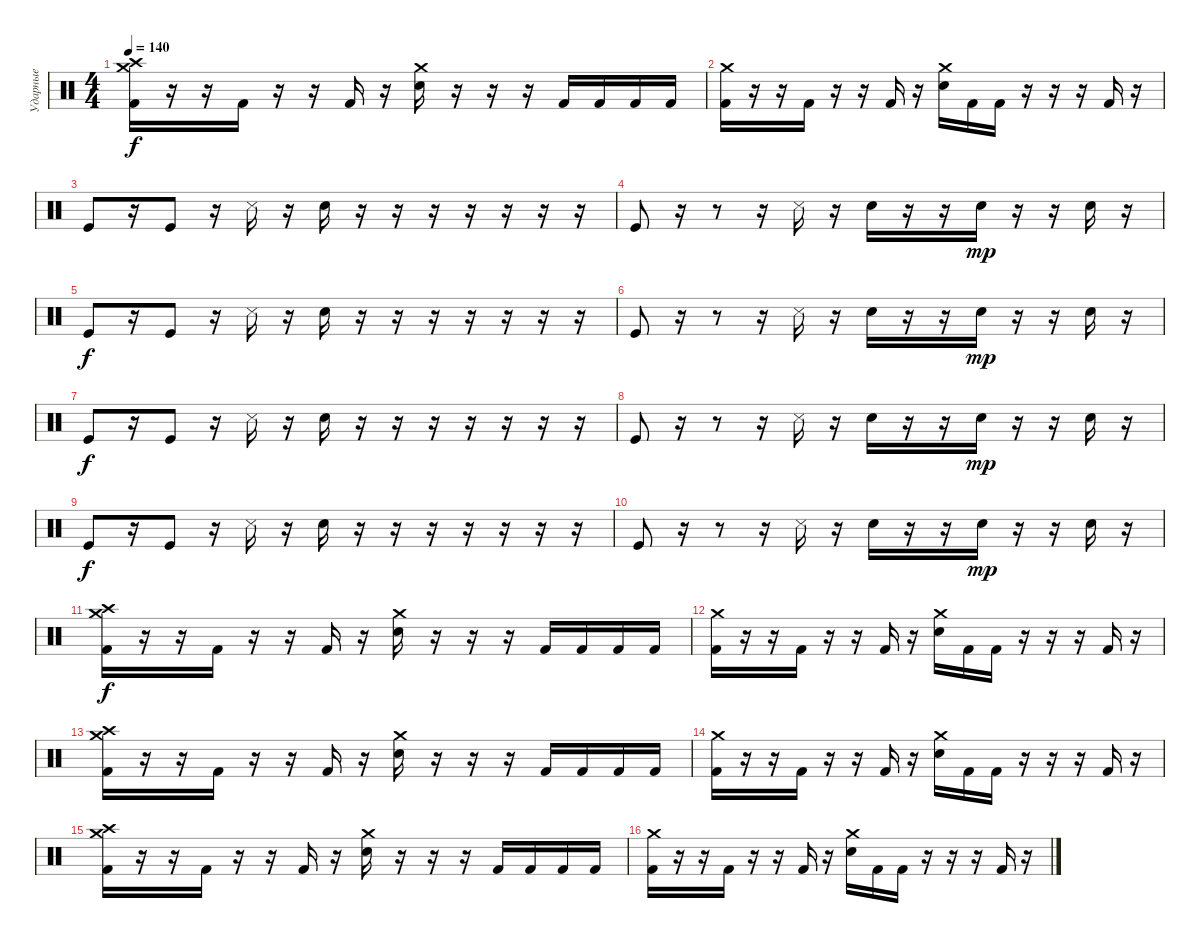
\track ("Ударные" "Ударные") {instrument percussion}
\staff {score}
\articulation defaults
\ts (4 4)
\tempo 140
\clef neutral
\ks c
("Crash medium (hit)" "Crash high (hit)" "Kick (hit) 2").16{dy f} r.16 r.16 "Kick (hit) 2".16 r.16 r.16 "Kick (hit) 2".16 r.16 ("Crash medium (hit)" "Snare (hit) 2").16 r.16 r.16 r.16 "Kick (hit) 2".16 "Kick (hit) 2".16 "Kick (hit) 2".16 "Kick (hit) 2".16 |
("Crash medium (hit)" "Kick (hit) 2").16 r.16 r.16 "Kick (hit) 2".16 r.16 r.16 "Kick (hit) 2".16 r.16 ("Crash medium (hit)" "Snare (hit) 2").16 "Kick (hit) 2".16 "Kick (hit) 2".16 r.16 r.16 r.16 "Kick (hit) 2".16 r.16 |
"Kick (hit)".8 r.16 "Kick (hit)".8 r.16 "Metronome (hit)".16 r.16 "Electric Snare (hit)".16 r.16 r.16 r.16 r.16 r.16 r.16 r.16 |
"Kick (hit)".8 r.16 r.8 r.16 "Metronome (hit)".16 r.16 "Electric Snare (hit)".16 r.16 r.16 "Electric Snare (hit)".16{dy mp} r.16 r.16 "Electric Snare (hit)".16 r.16 |
"Kick (hit)".8{dy f} r.16 "Kick (hit)".8 r.16 "Metronome (hit)".16 r.16 "Electric Snare (hit)".16 r.16 r.16 r.16 r.16 r.16 r.16 r.16 |
"Kick (hit)".8 r.16 r.8 r.16 "Metronome (hit)".16 r.16 "Electric Snare (hit)".16 r.16 r.16 "Electric Snare (hit)".16{dy mp} r.16 r.16 "Electric Snare (hit)".16 r.16 |
"Kick (hit)".8{dy f} r.16 "Kick (hit)".8 r.16 "Metronome (hit)".16 r.16 "Electric Snare (hit)".16 r.16 r.16 r.16 r.16 r.16 r.16 r.16 |
"Kick (hit)".8 r.16 r.8 r.16 "Metronome (hit)".16 r.16 "Electric Snare (hit)".16 r.16 r.16 "Electric Snare (hit)".16{dy mp} r.16 r.16 "Electric Snare (hit)".16 r.16 |
"Kick (hit)".8{dy f} r.16 "Kick (hit)".8 r.16 "Metronome (hit)".16 r.16 "Electric Snare (hit)".16 r.16 r.16 r.16 r.16 r.16 r.16 r.16 |
"Kick (hit)".8 r.16 r.8 r.16 "Metronome (hit)".16 r.16 "Electric Snare (hit)".16 r.16 r.16 "Electric Snare (hit)".16{dy mp} r.16 r.16 "Electric Snare (hit)".16 r.16 |
("Crash medium (hit)" "Crash high (hit)" "Kick (hit) 2").16{dy f} r.16 r.16 "Kick (hit) 2".16 r.16 r.16 "Kick (hit) 2".16 r.16 ("Crash medium (hit)" "Snare (hit) 2").16 r.16 r.16 r.16 "Kick (hit) 2".16 "Kick (hit) 2".16 "Kick (hit) 2".16 "Kick (hit) 2".16 |
("Crash medium (hit)" "Kick (hit) 2").16 r.16 r.16 "Kick (hit) 2".16 r.16 r.16 "Kick (hit) 2".16 r.16 ("Crash medium (hit)" "Snare (hit) 2").16 "Kick (hit) 2".16 "Kick (hit) 2".16 r.16 r.16 r.16 "Kick (hit) 2".16 r.16 |
("Crash medium (hit)" "Crash high (hit)" "Kick (hit) 2").16 r.16 r.16 "Kick (hit) 2".16 r.16 r.16 "Kick (hit) 2".16 r.16 ("Crash medium (hit)" "Snare (hit) 2").16 r.16 r.16 r.16 "Kick (hit) 2".16 "Kick (hit) 2".16 "Kick (hit) 2".16 "Kick (hit) 2".16 |
("Crash medium (hit)" "Kick (hit) 2").16 r.16 r.16 "Kick (hit) 2".16 r.16 r.16 "Kick (hit) 2".16 r.16 ("Crash medium (hit)" "Snare (hit) 2").16 "Kick (hit) 2".16 "Kick (hit) 2".16 r.16 r.16 r.16 "Kick (hit) 2".16 r.16 |
("Crash medium (hit)" "Crash high (hit)" "Kick (hit) 2").16 r.16 r.16 "Kick (hit) 2".16 r.16 r.16 "Kick (hit) 2".16 r.16 ("Crash medium (hit)" "Snare (hit) 2").16 r.16 r.16 r.16 "Kick (hit) 2".16 "Kick (hit) 2".16 "Kick (hit) 2".16 "Kick (hit) 2".16 |
("Crash medium (hit)" "Kick (hit) 2").16 r.16 r.16 "Kick (hit) 2".16 r.16 r.16 "Kick (hit) 2".16 r.16 ("Crash medium (hit)" "Snare (hit) 2").16 "Kick (hit) 2".16 "Kick (hit) 2".16 r.16 r.16 r.16 "Kick (hit) 2".16 r.16
